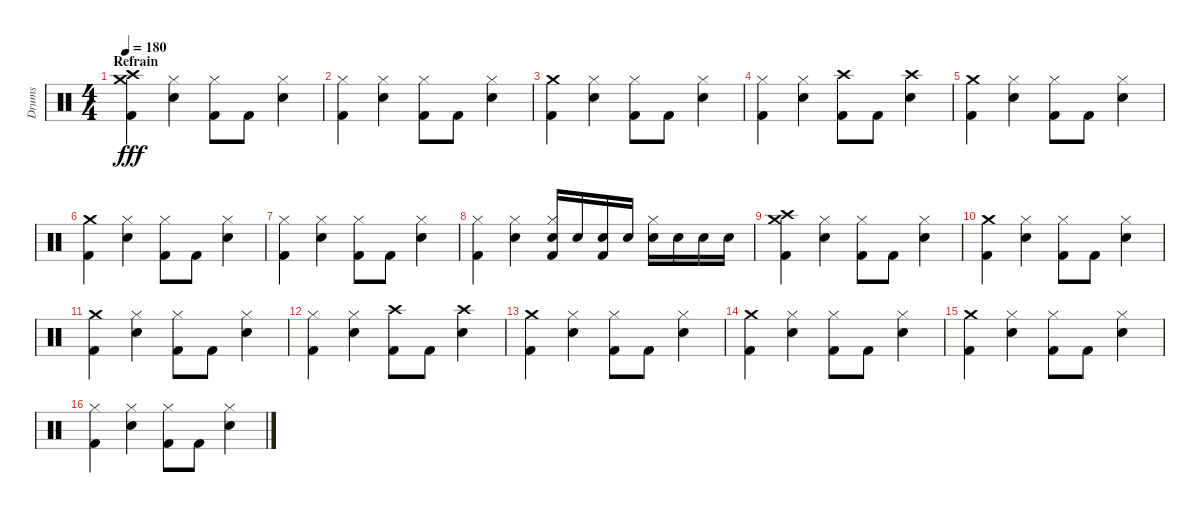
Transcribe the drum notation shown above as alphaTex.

\track ("Drums" "Drums") {instrument percussion}
\staff {score}
\articulation defaults
\ts (4 4)
\section ("" "Refrain")
\tempo 180
\clef neutral
\ks c
("Crash medium (hit)" "Crash high (hit)" "Kick (hit) 2").4{dy fff} ("Hi-Hat (closed)" "Electric Snare (hit)").4 ("Hi-Hat (closed)" "Kick (hit) 2").8 "Kick (hit) 2".8 ("Hi-Hat (closed)" "Electric Snare (hit)").4 |
("Hi-Hat (closed)" "Kick (hit) 2").4 ("Hi-Hat (closed)" "Electric Snare (hit)").4 ("Hi-Hat (closed)" "Kick (hit) 2").8 "Kick (hit) 2".8 ("Hi-Hat (closed)" "Electric Snare (hit)").4 |
("Crash medium (hit)" "Kick (hit) 2").4 ("Hi-Hat (closed)" "Electric Snare (hit)").4 ("Hi-Hat (closed)" "Kick (hit) 2").8 "Kick (hit) 2".8 ("Hi-Hat (closed)" "Electric Snare (hit)").4 |
("Hi-Hat (closed)" "Kick (hit) 2").4 ("Hi-Hat (closed)" "Electric Snare (hit)").4 ("Crash high (hit)" "Kick (hit) 2").8 "Kick (hit) 2".8 ("Crash high (hit)" "Electric Snare (hit)").4 |
("Crash medium (hit)" "Kick (hit) 2").4 ("Hi-Hat (closed)" "Electric Snare (hit)").4 ("Hi-Hat (closed)" "Kick (hit) 2").8 "Kick (hit) 2".8 ("Hi-Hat (closed)" "Electric Snare (hit)").4 |
("Crash medium (hit)" "Kick (hit) 2").4 ("Hi-Hat (closed)" "Electric Snare (hit)").4 ("Hi-Hat (closed)" "Kick (hit) 2").8 "Kick (hit) 2".8 ("Hi-Hat (closed)" "Electric Snare (hit)").4 |
("Hi-Hat (closed)" "Kick (hit) 2").4 ("Hi-Hat (closed)" "Electric Snare (hit)").4 ("Hi-Hat (closed)" "Kick (hit) 2").8 "Kick (hit) 2".8 ("Hi-Hat (closed)" "Electric Snare (hit)").4 |
("Hi-Hat (closed)" "Kick (hit) 2").4 ("Hi-Hat (closed)" "Electric Snare (hit)").4 ("Hi-Hat (closed)" "Kick (hit) 2" "Electric Snare (hit)").16 "Electric Snare (hit)".16 ("Kick (hit) 2" "Electric Snare (hit)").16 "Electric Snare (hit)".16 ("Hi-Hat (closed)" "Electric Snare (hit)").16 "Electric Snare (hit)".16 "Electric Snare (hit)".16 "Electric Snare (hit)".16 |
("Crash medium (hit)" "Crash high (hit)" "Kick (hit) 2").4 ("Hi-Hat (closed)" "Electric Snare (hit)").4 ("Hi-Hat (closed)" "Kick (hit) 2").8 "Kick (hit) 2".8 ("Hi-Hat (closed)" "Electric Snare (hit)").4 |
("Crash medium (hit)" "Kick (hit) 2").4 ("Hi-Hat (closed)" "Electric Snare (hit)").4 ("Hi-Hat (closed)" "Kick (hit) 2").8 "Kick (hit) 2".8 ("Hi-Hat (closed)" "Electric Snare (hit)").4 |
("Crash medium (hit)" "Kick (hit) 2").4 ("Hi-Hat (closed)" "Electric Snare (hit)").4 ("Hi-Hat (closed)" "Kick (hit) 2").8 "Kick (hit) 2".8 ("Hi-Hat (closed)" "Electric Snare (hit)").4 |
("Hi-Hat (closed)" "Kick (hit) 2").4 ("Hi-Hat (closed)" "Electric Snare (hit)").4 ("Crash high (hit)" "Kick (hit) 2").8 "Kick (hit) 2".8 ("Crash high (hit)" "Electric Snare (hit)").4 |
("Crash medium (hit)" "Kick (hit) 2").4 ("Hi-Hat (closed)" "Electric Snare (hit)").4 ("Hi-Hat (closed)" "Kick (hit) 2").8 "Kick (hit) 2".8 ("Hi-Hat (closed)" "Electric Snare (hit)").4 |
("Crash medium (hit)" "Kick (hit) 2").4 ("Hi-Hat (closed)" "Electric Snare (hit)").4 ("Hi-Hat (closed)" "Kick (hit) 2").8 "Kick (hit) 2".8 ("Hi-Hat (closed)" "Electric Snare (hit)").4 |
("Crash medium (hit)" "Kick (hit) 2").4 ("Hi-Hat (closed)" "Electric Snare (hit)").4 ("Hi-Hat (closed)" "Kick (hit) 2").8 "Kick (hit) 2".8 ("Hi-Hat (closed)" "Electric Snare (hit)").4 |
("Hi-Hat (closed)" "Kick (hit) 2").4 ("Hi-Hat (closed)" "Electric Snare (hit)").4 ("Hi-Hat (closed)" "Kick (hit) 2").8 "Kick (hit) 2".8 ("Hi-Hat (closed)" "Electric Snare (hit)").4
